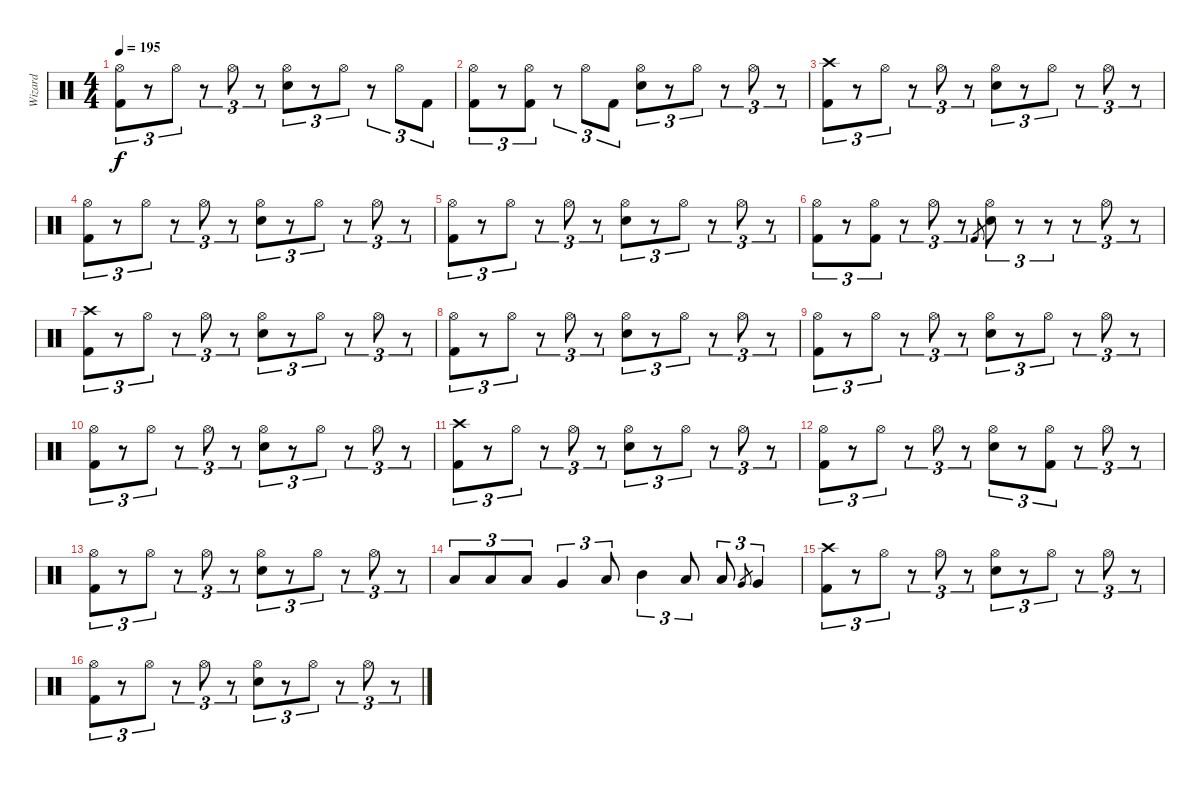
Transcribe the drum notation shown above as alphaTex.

\track ("Wizard" "Wizard") {instrument percussion}
\staff {score}
\articulation defaults
\ts (4 4)
\tempo 195
\clef neutral
\ks c
("Hi-Hat (open)" "Kick (hit) 2").8{tu (3 2) dy f} r.8{tu (3 2)} "Hi-Hat (open)".8{tu (3 2)} r.8{tu (3 2)} "Hi-Hat (open)".8{tu (3 2)} r.8{tu (3 2)} ("Hi-Hat (open)" "Snare (hit) 2").8{tu (3 2)} r.8{tu (3 2)} "Hi-Hat (open)".8{tu (3 2)} r.8{tu (3 2)} "Hi-Hat (open)".8{tu (3 2)} "Kick (hit) 2".8{tu (3 2)} |
("Hi-Hat (open)" "Kick (hit) 2").8{tu (3 2)} r.8{tu (3 2)} ("Hi-Hat (open)" "Kick (hit) 2").8{tu (3 2)} r.8{tu (3 2)} "Hi-Hat (open)".8{tu (3 2)} "Kick (hit) 2".8{tu (3 2)} ("Hi-Hat (open)" "Snare (hit) 2").8{tu (3 2)} r.8{tu (3 2)} "Hi-Hat (open)".8{tu (3 2)} r.8{tu (3 2)} "Hi-Hat (open)".8{tu (3 2)} r.8{tu (3 2)} |
("Crash high (hit)" "Kick (hit) 2").8{tu (3 2)} r.8{tu (3 2)} "Hi-Hat (open)".8{tu (3 2)} r.8{tu (3 2)} "Hi-Hat (open)".8{tu (3 2)} r.8{tu (3 2)} ("Hi-Hat (open)" "Snare (hit) 2").8{tu (3 2)} r.8{tu (3 2)} "Hi-Hat (open)".8{tu (3 2)} r.8{tu (3 2)} "Hi-Hat (open)".8{tu (3 2)} r.8{tu (3 2)} |
("Hi-Hat (open)" "Kick (hit) 2").8{tu (3 2)} r.8{tu (3 2)} "Hi-Hat (open)".8{tu (3 2)} r.8{tu (3 2)} "Hi-Hat (open)".8{tu (3 2)} r.8{tu (3 2)} ("Hi-Hat (open)" "Snare (hit) 2").8{tu (3 2)} r.8{tu (3 2)} "Hi-Hat (open)".8{tu (3 2)} r.8{tu (3 2)} "Hi-Hat (open)".8{tu (3 2)} r.8{tu (3 2)} |
("Hi-Hat (open)" "Kick (hit) 2").8{tu (3 2)} r.8{tu (3 2)} "Hi-Hat (open)".8{tu (3 2)} r.8{tu (3 2)} "Hi-Hat (open)".8{tu (3 2)} r.8{tu (3 2)} ("Hi-Hat (open)" "Snare (hit) 2").8{tu (3 2)} r.8{tu (3 2)} "Hi-Hat (open)".8{tu (3 2)} r.8{tu (3 2)} "Hi-Hat (open)".8{tu (3 2)} r.8{tu (3 2)} |
("Hi-Hat (open)" "Kick (hit) 2").8{tu (3 2)} r.8{tu (3 2)} ("Hi-Hat (open)" "Kick (hit) 2").8{tu (3 2)} r.8{tu (3 2)} "Hi-Hat (open)".8{tu (3 2)} r.8{tu (3 2)} "Kick (hit) 2".8{gr} ("Hi-Hat (open)" "Snare (hit) 2").8{tu (3 2)} r.8{tu (3 2)} r.8{tu (3 2)} r.8{tu (3 2)} "Hi-Hat (open)".8{tu (3 2)} r.8{tu (3 2)} |
("Crash high (hit)" "Kick (hit) 2").8{tu (3 2)} r.8{tu (3 2)} "Hi-Hat (open)".8{tu (3 2)} r.8{tu (3 2)} "Hi-Hat (open)".8{tu (3 2)} r.8{tu (3 2)} ("Hi-Hat (open)" "Snare (hit) 2").8{tu (3 2)} r.8{tu (3 2)} "Hi-Hat (open)".8{tu (3 2)} r.8{tu (3 2)} "Hi-Hat (open)".8{tu (3 2)} r.8{tu (3 2)} |
("Hi-Hat (open)" "Kick (hit) 2").8{tu (3 2)} r.8{tu (3 2)} "Hi-Hat (open)".8{tu (3 2)} r.8{tu (3 2)} "Hi-Hat (open)".8{tu (3 2)} r.8{tu (3 2)} ("Hi-Hat (open)" "Snare (hit) 2").8{tu (3 2)} r.8{tu (3 2)} "Hi-Hat (open)".8{tu (3 2)} r.8{tu (3 2)} "Hi-Hat (open)".8{tu (3 2)} r.8{tu (3 2)} |
("Hi-Hat (open)" "Kick (hit) 2").8{tu (3 2)} r.8{tu (3 2)} "Hi-Hat (open)".8{tu (3 2)} r.8{tu (3 2)} "Hi-Hat (open)".8{tu (3 2)} r.8{tu (3 2)} ("Hi-Hat (open)" "Snare (hit) 2").8{tu (3 2)} r.8{tu (3 2)} "Hi-Hat (open)".8{tu (3 2)} r.8{tu (3 2)} "Hi-Hat (open)".8{tu (3 2)} r.8{tu (3 2)} |
("Hi-Hat (open)" "Kick (hit) 2").8{tu (3 2)} r.8{tu (3 2)} "Hi-Hat (open)".8{tu (3 2)} r.8{tu (3 2)} "Hi-Hat (open)".8{tu (3 2)} r.8{tu (3 2)} ("Hi-Hat (open)" "Snare (hit) 2").8{tu (3 2)} r.8{tu (3 2)} "Hi-Hat (open)".8{tu (3 2)} r.8{tu (3 2)} "Hi-Hat (open)".8{tu (3 2)} r.8{tu (3 2)} |
("Crash high (hit)" "Kick (hit) 2").8{tu (3 2)} r.8{tu (3 2)} "Hi-Hat (open)".8{tu (3 2)} r.8{tu (3 2)} "Hi-Hat (open)".8{tu (3 2)} r.8{tu (3 2)} ("Hi-Hat (open)" "Snare (hit) 2").8{tu (3 2)} r.8{tu (3 2)} "Hi-Hat (open)".8{tu (3 2)} r.8{tu (3 2)} "Hi-Hat (open)".8{tu (3 2)} r.8{tu (3 2)} |
("Hi-Hat (open)" "Kick (hit) 2").8{tu (3 2)} r.8{tu (3 2)} "Hi-Hat (open)".8{tu (3 2)} r.8{tu (3 2)} "Hi-Hat (open)".8{tu (3 2)} r.8{tu (3 2)} ("Hi-Hat (open)" "Snare (hit) 2").8{tu (3 2)} r.8{tu (3 2)} ("Hi-Hat (open)" "Kick (hit) 2").8{tu (3 2)} r.8{tu (3 2)} "Hi-Hat (open)".8{tu (3 2)} r.8{tu (3 2)} |
("Hi-Hat (open)" "Kick (hit) 2").8{tu (3 2)} r.8{tu (3 2)} "Hi-Hat (open)".8{tu (3 2)} r.8{tu (3 2)} "Hi-Hat (open)".8{tu (3 2)} r.8{tu (3 2)} ("Hi-Hat (open)" "Snare (hit) 2").8{tu (3 2)} r.8{tu (3 2)} "Hi-Hat (open)".8{tu (3 2)} r.8{tu (3 2)} "Hi-Hat (open)".8{tu (3 2)} r.8{tu (3 2)} |
"Low Tom (hit)".8{tu (3 2)} "Low Tom (hit)".8{tu (3 2)} "Low Tom (hit)".8{tu (3 2)} "Very Low Tom (hit)".4{tu (3 2)} "Low Tom (hit)".8{tu (3 2)} "Mid Tom (hit)".4{tu (3 2)} "Low Tom (hit)".8{tu (3 2)} "Low Tom (hit)".8{tu (3 2)} "Very Low Tom (hit)".8{gr} "Very Low Tom (hit)".4{tu (3 2)} |
("Crash high (hit)" "Kick (hit) 2").8{tu (3 2)} r.8{tu (3 2)} "Hi-Hat (open)".8{tu (3 2)} r.8{tu (3 2)} "Hi-Hat (open)".8{tu (3 2)} r.8{tu (3 2)} ("Hi-Hat (open)" "Snare (hit) 2").8{tu (3 2)} r.8{tu (3 2)} "Hi-Hat (open)".8{tu (3 2)} r.8{tu (3 2)} "Hi-Hat (open)".8{tu (3 2)} r.8{tu (3 2)} |
("Hi-Hat (open)" "Kick (hit) 2").8{tu (3 2)} r.8{tu (3 2)} "Hi-Hat (open)".8{tu (3 2)} r.8{tu (3 2)} "Hi-Hat (open)".8{tu (3 2)} r.8{tu (3 2)} ("Hi-Hat (open)" "Snare (hit) 2").8{tu (3 2)} r.8{tu (3 2)} "Hi-Hat (open)".8{tu (3 2)} r.8{tu (3 2)} "Hi-Hat (open)".8{tu (3 2)} r.8{tu (3 2)}
